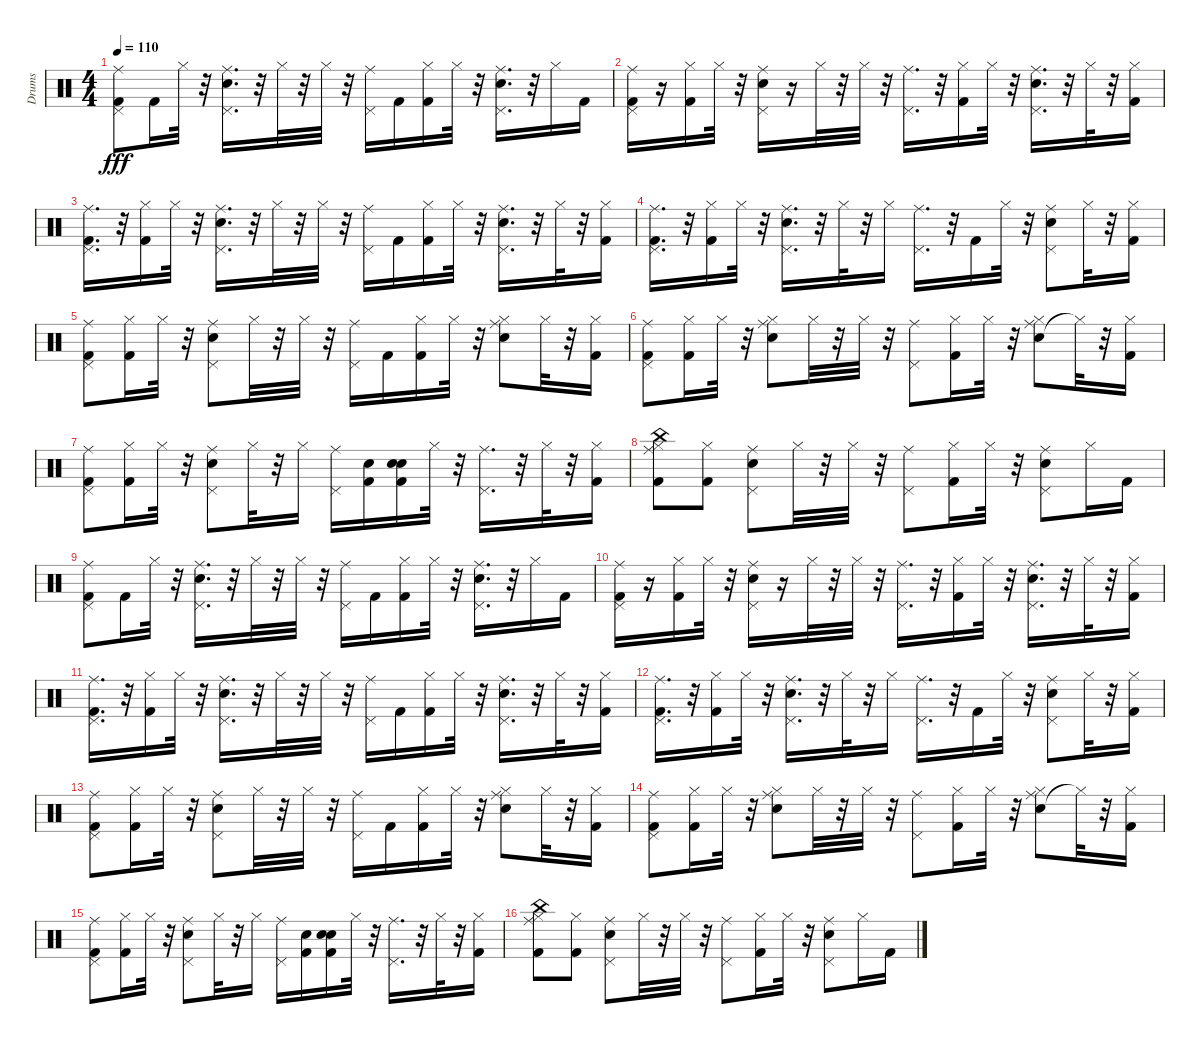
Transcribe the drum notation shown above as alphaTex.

\track ("Drums" "Drums") {instrument percussion}
\staff {score}
\articulation defaults
\ts (4 4)
\tempo 110
\clef neutral
\ks c
("Kick (hit) 2" "Pedal Hi-Hat (hit)" "Ride (middle)").8{dy fff} "Kick (hit) 2".16 "Hi-Hat (closed)".32 r.32 ("Snare (hit) 2" "Pedal Hi-Hat (hit)" "Ride (middle)").16{d} r.32 "Hi-Hat (closed)".32 r.32 "Hi-Hat (closed)".32 r.32 ("Pedal Hi-Hat (hit)" "Ride (middle)").16 "Kick (hit) 2".16 ("Kick (hit) 2" "Hi-Hat (closed)").16 "Hi-Hat (closed)".32 r.32 ("Snare (hit) 2" "Pedal Hi-Hat (hit)" "Ride (middle)").16{d} r.32 "Hi-Hat (closed)".16 "Kick (hit) 2".16 |
("Kick (hit) 2" "Pedal Hi-Hat (hit)" "Ride (middle)").16 r.16 ("Kick (hit) 2" "Hi-Hat (closed)").16 "Hi-Hat (closed)".32 r.32 ("Snare (hit) 2" "Pedal Hi-Hat (hit)" "Ride (middle)").16 r.16 "Hi-Hat (closed)".32 r.32 "Hi-Hat (closed)".32 r.32 ("Pedal Hi-Hat (hit)" "Ride (middle)").16{d} r.32 ("Kick (hit) 2" "Hi-Hat (closed)").16 "Hi-Hat (closed)".32 r.32 ("Snare (hit) 2" "Pedal Hi-Hat (hit)" "Ride (middle)").16{d} r.32 "Hi-Hat (closed)".32 r.32 ("Kick (hit) 2" "Hi-Hat (closed)").16 |
("Kick (hit) 2" "Pedal Hi-Hat (hit)" "Ride (middle)").16{d} r.32 ("Kick (hit) 2" "Hi-Hat (closed)").16 "Hi-Hat (closed)".32 r.32 ("Snare (hit) 2" "Pedal Hi-Hat (hit)" "Ride (middle)").16{d} r.32 "Hi-Hat (closed)".32 r.32 "Hi-Hat (closed)".32 r.32 ("Pedal Hi-Hat (hit)" "Ride (middle)").16 "Kick (hit) 2".16 ("Kick (hit) 2" "Hi-Hat (closed)").16 "Hi-Hat (closed)".32 r.32 ("Snare (hit) 2" "Pedal Hi-Hat (hit)" "Ride (middle)").16{d} r.32 "Hi-Hat (closed)".32 r.32 ("Kick (hit) 2" "Hi-Hat (closed)").16 |
("Kick (hit) 2" "Pedal Hi-Hat (hit)" "Ride (middle)").16{d} r.32 ("Kick (hit) 2" "Hi-Hat (closed)").16 "Hi-Hat (closed)".32 r.32 ("Snare (hit) 2" "Pedal Hi-Hat (hit)" "Ride (middle)").16{d} r.32 "Hi-Hat (closed)".32 r.32 "Hi-Hat (closed)".16 ("Pedal Hi-Hat (hit)" "Ride (middle)").16{d} r.32 "Kick (hit) 2".16 "Hi-Hat (closed)".32 r.32 ("Snare (hit) 2" "Pedal Hi-Hat (hit)" "Ride (middle)").8 "Hi-Hat (closed)".32 r.32 ("Kick (hit) 2" "Hi-Hat (closed)").16 |
("Kick (hit) 2" "Pedal Hi-Hat (hit)" "Ride (middle)").8 ("Kick (hit) 2" "Hi-Hat (closed)").16 "Hi-Hat (closed)".32 r.32 ("Snare (hit) 2" "Pedal Hi-Hat (hit)" "Ride (middle)").8 "Hi-Hat (closed)".32 r.32 "Hi-Hat (closed)".32 r.32 ("Pedal Hi-Hat (hit)" "Ride (middle)").16 "Kick (hit) 2".16 ("Kick (hit) 2" "Hi-Hat (closed)").16 "Hi-Hat (closed)".32 r.32 ("Snare (hit) 2" "Hi-Hat (closed)" "Ride (middle)").8 "Hi-Hat (closed)".32 r.32 ("Kick (hit) 2" "Hi-Hat (closed)").16 |
("Kick (hit) 2" "Pedal Hi-Hat (hit)" "Ride (middle)").8 ("Kick (hit) 2" "Hi-Hat (closed)").16 "Hi-Hat (closed)".32 r.32 ("Snare (hit) 2" "Hi-Hat (closed)" "Ride (middle)").8 "Hi-Hat (closed)".32 r.32 "Hi-Hat (closed)".32 r.32 ("Pedal Hi-Hat (hit)" "Ride (middle)").8 ("Kick (hit) 2" "Hi-Hat (closed)").16 "Hi-Hat (closed)".32 r.32 ("Snare (hit) 2" "Hi-Hat (closed)" "Ride (middle)").8 "Hi-Hat (closed)"{t}.32 r.32 ("Kick (hit) 2" "Hi-Hat (closed)").16 |
("Kick (hit) 2" "Pedal Hi-Hat (hit)" "Ride (middle)").8 ("Kick (hit) 2" "Hi-Hat (closed)").16 "Hi-Hat (closed)".32 r.32 ("Snare (hit) 2" "Pedal Hi-Hat (hit)" "Ride (middle)").8 "Hi-Hat (closed)".32 r.32 "Hi-Hat (closed)".16 ("Pedal Hi-Hat (hit)" "Ride (middle)").16 ("Kick (hit) 2" "Snare (hit) 2").16 ("Snare (hit) 2" "Kick (hit) 2" "Snare (hit) 2").16 "Hi-Hat (closed)".32 r.32 ("Pedal Hi-Hat (hit)" "Ride (middle)").16{d} r.32 "Hi-Hat (closed)".32 r.32 ("Kick (hit) 2" "Hi-Hat (closed)").16 |
("Kick (hit) 2" "Hi-Hat (closed)" "Ride (middle)" "China (hit)").8 ("Kick (hit) 2" "Hi-Hat (closed)").8 ("Snare (hit) 2" "Pedal Hi-Hat (hit)" "Ride (middle)").8 "Hi-Hat (closed)".32 r.32 "Hi-Hat (closed)".32 r.32 ("Pedal Hi-Hat (hit)" "Ride (middle)").8 ("Kick (hit) 2" "Hi-Hat (closed)").16 "Hi-Hat (closed)".32 r.32 ("Snare (hit) 2" "Pedal Hi-Hat (hit)" "Ride (middle)").8 "Hi-Hat (closed)".16 "Kick (hit) 2".16 |
("Kick (hit) 2" "Pedal Hi-Hat (hit)" "Ride (middle)").8 "Kick (hit) 2".16 "Hi-Hat (closed)".32 r.32 ("Snare (hit) 2" "Pedal Hi-Hat (hit)" "Ride (middle)").16{d} r.32 "Hi-Hat (closed)".32 r.32 "Hi-Hat (closed)".32 r.32 ("Pedal Hi-Hat (hit)" "Ride (middle)").16 "Kick (hit) 2".16 ("Kick (hit) 2" "Hi-Hat (closed)").16 "Hi-Hat (closed)".32 r.32 ("Snare (hit) 2" "Pedal Hi-Hat (hit)" "Ride (middle)").16{d} r.32 "Hi-Hat (closed)".16 "Kick (hit) 2".16 |
("Kick (hit) 2" "Pedal Hi-Hat (hit)" "Ride (middle)").16 r.16 ("Kick (hit) 2" "Hi-Hat (closed)").16 "Hi-Hat (closed)".32 r.32 ("Snare (hit) 2" "Pedal Hi-Hat (hit)" "Ride (middle)").16 r.16 "Hi-Hat (closed)".32 r.32 "Hi-Hat (closed)".32 r.32 ("Pedal Hi-Hat (hit)" "Ride (middle)").16{d} r.32 ("Kick (hit) 2" "Hi-Hat (closed)").16 "Hi-Hat (closed)".32 r.32 ("Snare (hit) 2" "Pedal Hi-Hat (hit)" "Ride (middle)").16{d} r.32 "Hi-Hat (closed)".32 r.32 ("Kick (hit) 2" "Hi-Hat (closed)").16 |
("Kick (hit) 2" "Pedal Hi-Hat (hit)" "Ride (middle)").16{d} r.32 ("Kick (hit) 2" "Hi-Hat (closed)").16 "Hi-Hat (closed)".32 r.32 ("Snare (hit) 2" "Pedal Hi-Hat (hit)" "Ride (middle)").16{d} r.32 "Hi-Hat (closed)".32 r.32 "Hi-Hat (closed)".32 r.32 ("Pedal Hi-Hat (hit)" "Ride (middle)").16 "Kick (hit) 2".16 ("Kick (hit) 2" "Hi-Hat (closed)").16 "Hi-Hat (closed)".32 r.32 ("Snare (hit) 2" "Pedal Hi-Hat (hit)" "Ride (middle)").16{d} r.32 "Hi-Hat (closed)".32 r.32 ("Kick (hit) 2" "Hi-Hat (closed)").16 |
("Kick (hit) 2" "Pedal Hi-Hat (hit)" "Ride (middle)").16{d} r.32 ("Kick (hit) 2" "Hi-Hat (closed)").16 "Hi-Hat (closed)".32 r.32 ("Snare (hit) 2" "Pedal Hi-Hat (hit)" "Ride (middle)").16{d} r.32 "Hi-Hat (closed)".32 r.32 "Hi-Hat (closed)".16 ("Pedal Hi-Hat (hit)" "Ride (middle)").16{d} r.32 "Kick (hit) 2".16 "Hi-Hat (closed)".32 r.32 ("Snare (hit) 2" "Pedal Hi-Hat (hit)" "Ride (middle)").8 "Hi-Hat (closed)".32 r.32 ("Kick (hit) 2" "Hi-Hat (closed)").16 |
("Kick (hit) 2" "Pedal Hi-Hat (hit)" "Ride (middle)").8 ("Kick (hit) 2" "Hi-Hat (closed)").16 "Hi-Hat (closed)".32 r.32 ("Snare (hit) 2" "Pedal Hi-Hat (hit)" "Ride (middle)").8 "Hi-Hat (closed)".32 r.32 "Hi-Hat (closed)".32 r.32 ("Pedal Hi-Hat (hit)" "Ride (middle)").16 "Kick (hit) 2".16 ("Kick (hit) 2" "Hi-Hat (closed)").16 "Hi-Hat (closed)".32 r.32 ("Snare (hit) 2" "Hi-Hat (closed)" "Ride (middle)").8 "Hi-Hat (closed)".32 r.32 ("Kick (hit) 2" "Hi-Hat (closed)").16 |
("Kick (hit) 2" "Pedal Hi-Hat (hit)" "Ride (middle)").8 ("Kick (hit) 2" "Hi-Hat (closed)").16 "Hi-Hat (closed)".32 r.32 ("Snare (hit) 2" "Hi-Hat (closed)" "Ride (middle)").8 "Hi-Hat (closed)".32 r.32 "Hi-Hat (closed)".32 r.32 ("Pedal Hi-Hat (hit)" "Ride (middle)").8 ("Kick (hit) 2" "Hi-Hat (closed)").16 "Hi-Hat (closed)".32 r.32 ("Snare (hit) 2" "Hi-Hat (closed)" "Ride (middle)").8 "Hi-Hat (closed)"{t}.32 r.32 ("Kick (hit) 2" "Hi-Hat (closed)").16 |
("Kick (hit) 2" "Pedal Hi-Hat (hit)" "Ride (middle)").8 ("Kick (hit) 2" "Hi-Hat (closed)").16 "Hi-Hat (closed)".32 r.32 ("Snare (hit) 2" "Pedal Hi-Hat (hit)" "Ride (middle)").8 "Hi-Hat (closed)".32 r.32 "Hi-Hat (closed)".16 ("Pedal Hi-Hat (hit)" "Ride (middle)").16 ("Kick (hit) 2" "Snare (hit) 2").16 ("Snare (hit) 2" "Kick (hit) 2" "Snare (hit) 2").16 "Hi-Hat (closed)".32 r.32 ("Pedal Hi-Hat (hit)" "Ride (middle)").16{d} r.32 "Hi-Hat (closed)".32 r.32 ("Kick (hit) 2" "Hi-Hat (closed)").16 |
("Kick (hit) 2" "Hi-Hat (closed)" "Ride (middle)" "China (hit)").8 ("Kick (hit) 2" "Hi-Hat (closed)").8 ("Snare (hit) 2" "Pedal Hi-Hat (hit)" "Ride (middle)").8 "Hi-Hat (closed)".32 r.32 "Hi-Hat (closed)".32 r.32 ("Pedal Hi-Hat (hit)" "Ride (middle)").8 ("Kick (hit) 2" "Hi-Hat (closed)").16 "Hi-Hat (closed)".32 r.32 ("Snare (hit) 2" "Pedal Hi-Hat (hit)" "Ride (middle)").8 "Hi-Hat (closed)".16 "Kick (hit) 2".16
